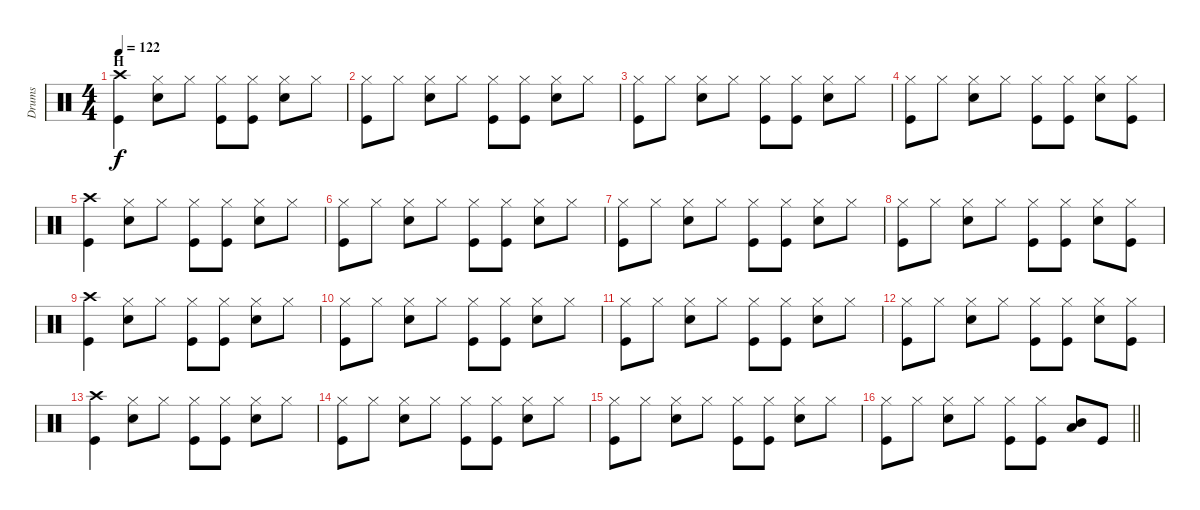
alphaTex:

\track ("Drums" "Drums") {instrument percussion}
\staff {score}
\articulation defaults
\ts (4 4)
\section ("" "H")
\tempo 122
\clef neutral
\ks c
("Crash high (hit)" "Kick (hit)").4{dy f} ("Hi-Hat (closed)" "Electric Snare (hit)").8 "Hi-Hat (closed)".8 ("Hi-Hat (closed)" "Kick (hit)").8 ("Hi-Hat (closed)" "Kick (hit)").8 ("Hi-Hat (closed)" "Electric Snare (hit)").8 "Hi-Hat (closed)".8 |
("Hi-Hat (closed)" "Kick (hit)").8 "Hi-Hat (closed)".8 ("Hi-Hat (closed)" "Electric Snare (hit)").8 "Hi-Hat (closed)".8 ("Hi-Hat (closed)" "Kick (hit)").8 ("Hi-Hat (closed)" "Kick (hit)").8 ("Hi-Hat (closed)" "Electric Snare (hit)").8 "Hi-Hat (closed)".8 |
("Hi-Hat (closed)" "Kick (hit)").8 "Hi-Hat (closed)".8 ("Hi-Hat (closed)" "Electric Snare (hit)").8 "Hi-Hat (closed)".8 ("Hi-Hat (closed)" "Kick (hit)").8 ("Hi-Hat (closed)" "Kick (hit)").8 ("Hi-Hat (closed)" "Electric Snare (hit)").8 "Hi-Hat (closed)".8 |
("Hi-Hat (closed)" "Kick (hit)").8 "Hi-Hat (closed)".8 ("Hi-Hat (closed)" "Electric Snare (hit)").8 "Hi-Hat (closed)".8 ("Hi-Hat (closed)" "Kick (hit)").8 ("Hi-Hat (closed)" "Kick (hit)").8 ("Hi-Hat (closed)" "Electric Snare (hit)").8 ("Hi-Hat (closed)" "Kick (hit)").8 |
("Crash high (hit)" "Kick (hit)").4 ("Hi-Hat (closed)" "Electric Snare (hit)").8 "Hi-Hat (closed)".8 ("Hi-Hat (closed)" "Kick (hit)").8 ("Hi-Hat (closed)" "Kick (hit)").8 ("Hi-Hat (closed)" "Electric Snare (hit)").8 "Hi-Hat (closed)".8 |
("Hi-Hat (closed)" "Kick (hit)").8 "Hi-Hat (closed)".8 ("Hi-Hat (closed)" "Electric Snare (hit)").8 "Hi-Hat (closed)".8 ("Hi-Hat (closed)" "Kick (hit)").8 ("Hi-Hat (closed)" "Kick (hit)").8 ("Hi-Hat (closed)" "Electric Snare (hit)").8 "Hi-Hat (closed)".8 |
("Hi-Hat (closed)" "Kick (hit)").8 "Hi-Hat (closed)".8 ("Hi-Hat (closed)" "Electric Snare (hit)").8 "Hi-Hat (closed)".8 ("Hi-Hat (closed)" "Kick (hit)").8 ("Hi-Hat (closed)" "Kick (hit)").8 ("Hi-Hat (closed)" "Electric Snare (hit)").8 "Hi-Hat (closed)".8 |
("Hi-Hat (closed)" "Kick (hit)").8 "Hi-Hat (closed)".8 ("Hi-Hat (closed)" "Electric Snare (hit)").8 "Hi-Hat (closed)".8 ("Hi-Hat (closed)" "Kick (hit)").8 ("Hi-Hat (closed)" "Kick (hit)").8 ("Hi-Hat (closed)" "Electric Snare (hit)").8 ("Hi-Hat (closed)" "Kick (hit)").8 |
("Crash high (hit)" "Kick (hit)").4 ("Hi-Hat (closed)" "Electric Snare (hit)").8 "Hi-Hat (closed)".8 ("Hi-Hat (closed)" "Kick (hit)").8 ("Hi-Hat (closed)" "Kick (hit)").8 ("Hi-Hat (closed)" "Electric Snare (hit)").8 "Hi-Hat (closed)".8 |
("Hi-Hat (closed)" "Kick (hit)").8 "Hi-Hat (closed)".8 ("Hi-Hat (closed)" "Electric Snare (hit)").8 "Hi-Hat (closed)".8 ("Hi-Hat (closed)" "Kick (hit)").8 ("Hi-Hat (closed)" "Kick (hit)").8 ("Hi-Hat (closed)" "Electric Snare (hit)").8 "Hi-Hat (closed)".8 |
("Hi-Hat (closed)" "Kick (hit)").8 "Hi-Hat (closed)".8 ("Hi-Hat (closed)" "Electric Snare (hit)").8 "Hi-Hat (closed)".8 ("Hi-Hat (closed)" "Kick (hit)").8 ("Hi-Hat (closed)" "Kick (hit)").8 ("Hi-Hat (closed)" "Electric Snare (hit)").8 "Hi-Hat (closed)".8 |
("Hi-Hat (closed)" "Kick (hit)").8 "Hi-Hat (closed)".8 ("Hi-Hat (closed)" "Electric Snare (hit)").8 "Hi-Hat (closed)".8 ("Hi-Hat (closed)" "Kick (hit)").8 ("Hi-Hat (closed)" "Kick (hit)").8 ("Hi-Hat (closed)" "Electric Snare (hit)").8 ("Hi-Hat (closed)" "Kick (hit)").8 |
("Crash high (hit)" "Kick (hit)").4 ("Hi-Hat (closed)" "Electric Snare (hit)").8 "Hi-Hat (closed)".8 ("Hi-Hat (closed)" "Kick (hit)").8 ("Hi-Hat (closed)" "Kick (hit)").8 ("Hi-Hat (closed)" "Electric Snare (hit)").8 "Hi-Hat (closed)".8 |
("Hi-Hat (closed)" "Kick (hit)").8 "Hi-Hat (closed)".8 ("Hi-Hat (closed)" "Electric Snare (hit)").8 "Hi-Hat (closed)".8 ("Hi-Hat (closed)" "Kick (hit)").8 ("Hi-Hat (closed)" "Kick (hit)").8 ("Hi-Hat (closed)" "Electric Snare (hit)").8 "Hi-Hat (closed)".8 |
("Hi-Hat (closed)" "Kick (hit)").8 "Hi-Hat (closed)".8 ("Hi-Hat (closed)" "Electric Snare (hit)").8 "Hi-Hat (closed)".8 ("Hi-Hat (closed)" "Kick (hit)").8 ("Hi-Hat (closed)" "Kick (hit)").8 ("Hi-Hat (closed)" "Electric Snare (hit)").8 "Hi-Hat (closed)".8 |
\barLineRight lightlight
("Hi-Hat (closed)" "Kick (hit)").8 "Hi-Hat (closed)".8 ("Hi-Hat (closed)" "Electric Snare (hit)").8 "Hi-Hat (closed)".8 ("Hi-Hat (closed)" "Kick (hit)").8 ("Hi-Hat (closed)" "Kick (hit)").8 ("Mid Tom (hit)" "Low Tom (hit)").8 "Kick (hit)".8
